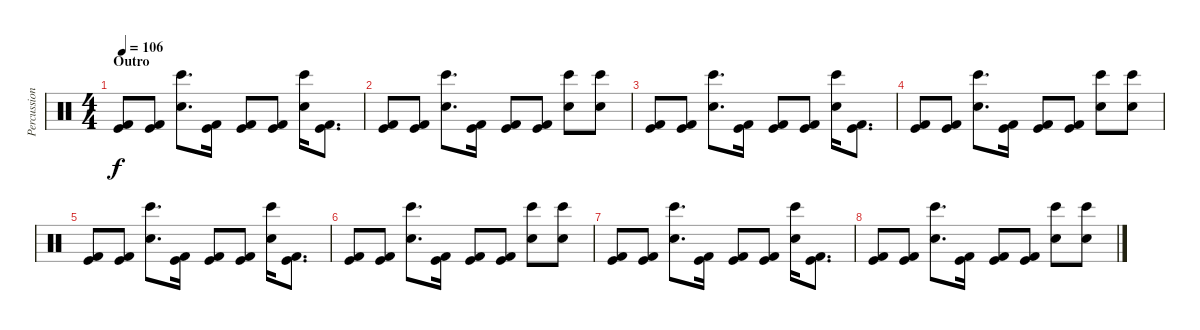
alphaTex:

\track ("Percussion" "Percussion") {instrument percussion}
\staff {score}
\articulation defaults
\ts (4 4)
\section ("" "Outro")
\tempo 106
\clef neutral
\ks c
("Kick (hit)" "Kick (hit) 2").8{dy f} ("Kick (hit)" "Kick (hit) 2").8 ("Bongo High (hit)" "Hand Clap (hit)").8{d} ("Kick (hit)" "Kick (hit) 2").16 ("Kick (hit)" "Kick (hit) 2").8 ("Kick (hit)" "Kick (hit) 2").8 ("Bongo High (hit)" "Hand Clap (hit)").16 ("Kick (hit)" "Kick (hit) 2").8{d} |
("Kick (hit)" "Kick (hit) 2").8 ("Kick (hit)" "Kick (hit) 2").8 ("Bongo High (hit)" "Hand Clap (hit)").8{d} ("Kick (hit)" "Kick (hit) 2").16 ("Kick (hit)" "Kick (hit) 2").8 ("Kick (hit)" "Kick (hit) 2").8 ("Bongo High (hit)" "Hand Clap (hit)").8 ("Bongo High (hit)" "Hand Clap (hit)").8 |
("Kick (hit)" "Kick (hit) 2").8 ("Kick (hit)" "Kick (hit) 2").8 ("Bongo High (hit)" "Hand Clap (hit)").8{d} ("Kick (hit)" "Kick (hit) 2").16 ("Kick (hit)" "Kick (hit) 2").8 ("Kick (hit)" "Kick (hit) 2").8 ("Bongo High (hit)" "Hand Clap (hit)").16 ("Kick (hit)" "Kick (hit) 2").8{d} |
("Kick (hit)" "Kick (hit) 2").8 ("Kick (hit)" "Kick (hit) 2").8 ("Bongo High (hit)" "Hand Clap (hit)").8{d} ("Kick (hit)" "Kick (hit) 2").16 ("Kick (hit)" "Kick (hit) 2").8 ("Kick (hit)" "Kick (hit) 2").8 ("Bongo High (hit)" "Hand Clap (hit)").8 ("Bongo High (hit)" "Hand Clap (hit)").8 |
("Kick (hit)" "Kick (hit) 2").8 ("Kick (hit)" "Kick (hit) 2").8 ("Bongo High (hit)" "Hand Clap (hit)").8{d} ("Kick (hit)" "Kick (hit) 2").16 ("Kick (hit)" "Kick (hit) 2").8 ("Kick (hit)" "Kick (hit) 2").8 ("Bongo High (hit)" "Hand Clap (hit)").16 ("Kick (hit)" "Kick (hit) 2").8{d} |
("Kick (hit)" "Kick (hit) 2").8 ("Kick (hit)" "Kick (hit) 2").8 ("Bongo High (hit)" "Hand Clap (hit)").8{d} ("Kick (hit)" "Kick (hit) 2").16 ("Kick (hit)" "Kick (hit) 2").8 ("Kick (hit)" "Kick (hit) 2").8 ("Bongo High (hit)" "Hand Clap (hit)").8 ("Bongo High (hit)" "Hand Clap (hit)").8 |
("Kick (hit)" "Kick (hit) 2").8 ("Kick (hit)" "Kick (hit) 2").8 ("Bongo High (hit)" "Hand Clap (hit)").8{d} ("Kick (hit)" "Kick (hit) 2").16 ("Kick (hit)" "Kick (hit) 2").8 ("Kick (hit)" "Kick (hit) 2").8 ("Bongo High (hit)" "Hand Clap (hit)").16 ("Kick (hit)" "Kick (hit) 2").8{d} |
("Kick (hit)" "Kick (hit) 2").8 ("Kick (hit)" "Kick (hit) 2").8 ("Bongo High (hit)" "Hand Clap (hit)").8{d} ("Kick (hit)" "Kick (hit) 2").16 ("Kick (hit)" "Kick (hit) 2").8 ("Kick (hit)" "Kick (hit) 2").8 ("Bongo High (hit)" "Hand Clap (hit)").8 ("Bongo High (hit)" "Hand Clap (hit)").8
